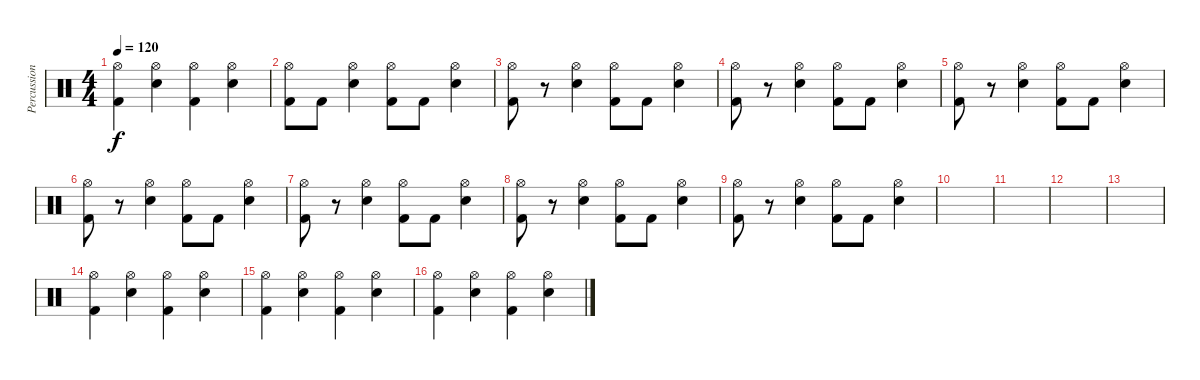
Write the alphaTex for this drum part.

\track ("Percussion" "Percussion") {instrument percussion}
\staff {score}
\articulation defaults
\ts (4 4)
\tempo 120
\clef neutral
\ks c
("Hi-Hat (open)" "Kick (hit) 2").4{dy f} ("Snare (hit) 2" "Hi-Hat (open)").4 ("Hi-Hat (open)" "Kick (hit) 2").4 ("Snare (hit) 2" "Hi-Hat (open)").4 |
("Hi-Hat (open)" "Kick (hit) 2").8 "Kick (hit) 2".8 ("Hi-Hat (open)" "Snare (hit) 2").4 ("Hi-Hat (open)" "Kick (hit) 2").8 "Kick (hit) 2".8 ("Hi-Hat (open)" "Snare (hit) 2").4 |
("Hi-Hat (open)" "Kick (hit) 2").8 r.8 ("Hi-Hat (open)" "Snare (hit) 2").4 ("Hi-Hat (open)" "Kick (hit) 2").8 "Kick (hit) 2".8 ("Hi-Hat (open)" "Snare (hit) 2").4 |
("Hi-Hat (open)" "Kick (hit) 2").8 r.8 ("Hi-Hat (open)" "Snare (hit) 2").4 ("Hi-Hat (open)" "Kick (hit) 2").8 "Kick (hit) 2".8 ("Hi-Hat (open)" "Snare (hit) 2").4 |
("Hi-Hat (open)" "Kick (hit) 2").8 r.8 ("Hi-Hat (open)" "Snare (hit) 2").4 ("Hi-Hat (open)" "Kick (hit) 2").8 "Kick (hit) 2".8 ("Hi-Hat (open)" "Snare (hit) 2").4 |
("Hi-Hat (open)" "Kick (hit) 2").8 r.8 ("Hi-Hat (open)" "Snare (hit) 2").4 ("Hi-Hat (open)" "Kick (hit) 2").8 "Kick (hit) 2".8 ("Hi-Hat (open)" "Snare (hit) 2").4 |
("Hi-Hat (open)" "Kick (hit) 2").8 r.8 ("Hi-Hat (open)" "Snare (hit) 2").4 ("Hi-Hat (open)" "Kick (hit) 2").8 "Kick (hit) 2".8 ("Hi-Hat (open)" "Snare (hit) 2").4 |
("Hi-Hat (open)" "Kick (hit) 2").8 r.8 ("Hi-Hat (open)" "Snare (hit) 2").4 ("Hi-Hat (open)" "Kick (hit) 2").8 "Kick (hit) 2".8 ("Hi-Hat (open)" "Snare (hit) 2").4 |
("Hi-Hat (open)" "Kick (hit) 2").8 r.8 ("Hi-Hat (open)" "Snare (hit) 2").4 ("Hi-Hat (open)" "Kick (hit) 2").8 "Kick (hit) 2".8 ("Hi-Hat (open)" "Snare (hit) 2").4 |
|
|
|
|
("Hi-Hat (open)" "Kick (hit) 2").4 ("Snare (hit) 2" "Hi-Hat (open)").4 ("Hi-Hat (open)" "Kick (hit) 2").4 ("Snare (hit) 2" "Hi-Hat (open)").4 |
("Hi-Hat (open)" "Kick (hit) 2").4 ("Snare (hit) 2" "Hi-Hat (open)").4 ("Hi-Hat (open)" "Kick (hit) 2").4 ("Snare (hit) 2" "Hi-Hat (open)").4 |
("Hi-Hat (open)" "Kick (hit) 2").4 ("Snare (hit) 2" "Hi-Hat (open)").4 ("Hi-Hat (open)" "Kick (hit) 2").4 ("Snare (hit) 2" "Hi-Hat (open)").4
